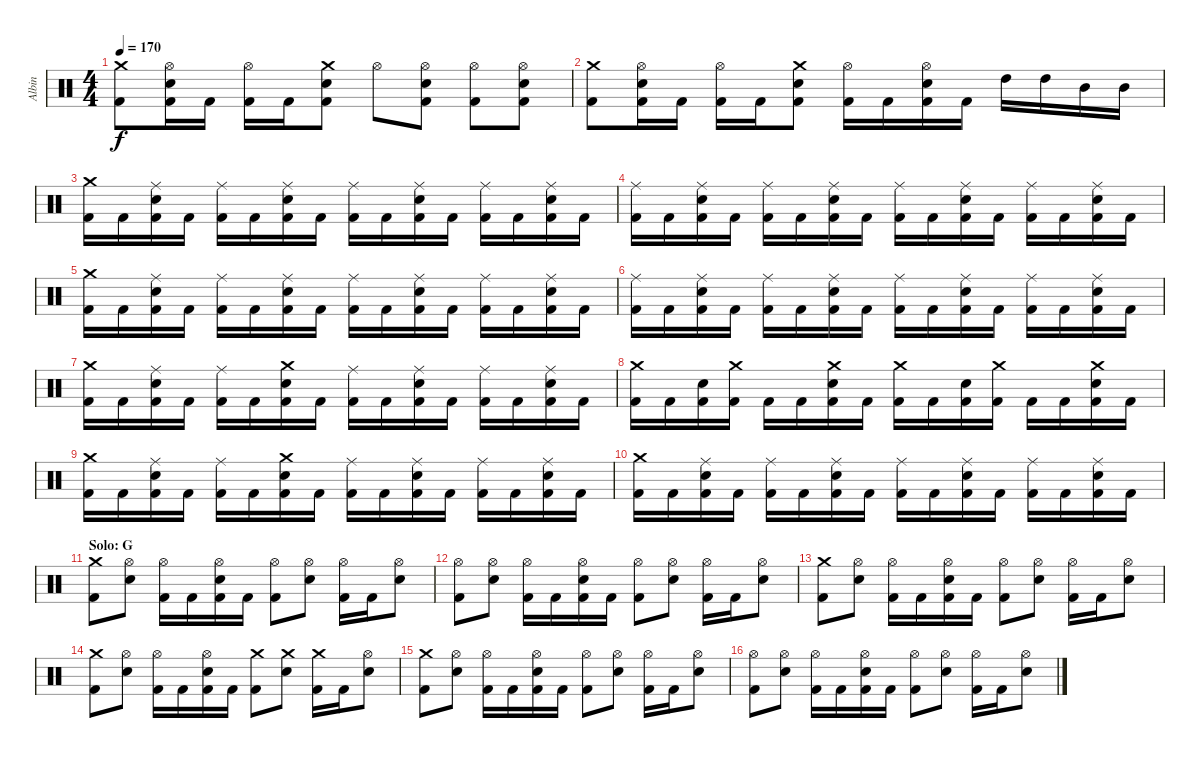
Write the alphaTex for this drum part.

\track ("Albin" "Albin") {instrument percussion}
\staff {score}
\articulation defaults
\ts (4 4)
\tempo 170
\clef neutral
\ks c
("Crash medium (hit)" "Kick (hit) 2").8{dy f} ("Hi-Hat (open)" "Electric Snare (hit)" "Kick (hit) 2").16 "Kick (hit) 2".16 ("Hi-Hat (open)" "Kick (hit) 2").16 "Kick (hit) 2".16 ("Crash medium (hit)" "Electric Snare (hit)" "Kick (hit) 2").8 "Hi-Hat (open)".8 ("Hi-Hat (open)" "Electric Snare (hit)" "Kick (hit) 2").8 ("Hi-Hat (open)" "Kick (hit) 2").8 ("Hi-Hat (open)" "Electric Snare (hit)" "Kick (hit) 2").8 |
("Crash medium (hit)" "Kick (hit) 2").8 ("Hi-Hat (open)" "Electric Snare (hit)" "Kick (hit) 2").16 "Kick (hit) 2".16 ("Hi-Hat (open)" "Kick (hit) 2").16 "Kick (hit) 2".16 ("Crash medium (hit)" "Electric Snare (hit)" "Kick (hit) 2").8 ("Hi-Hat (open)" "Kick (hit) 2").16 "Kick (hit) 2".16 ("Hi-Hat (open)" "Electric Snare (hit)" "Kick (hit) 2").16 "Kick (hit) 2".16 "High Tom (hit)".16 "High Tom (hit)".16 "Mid Tom (hit)".16 "Mid Tom (hit)".16 |
("Crash medium (hit)" "Kick (hit) 2").16 "Kick (hit) 2".16 ("Ride (middle)" "Electric Snare (hit)" "Kick (hit) 2").16 "Kick (hit) 2".16 ("Ride (middle)" "Kick (hit) 2").16 "Kick (hit) 2".16 ("Ride (middle)" "Electric Snare (hit)" "Kick (hit) 2").16 "Kick (hit) 2".16 ("Ride (middle)" "Kick (hit) 2").16 "Kick (hit) 2".16 ("Ride (middle)" "Electric Snare (hit)" "Kick (hit) 2").16 "Kick (hit) 2".16 ("Ride (middle)" "Kick (hit) 2").16 "Kick (hit) 2".16 ("Ride (middle)" "Electric Snare (hit)" "Kick (hit) 2").16 "Kick (hit) 2".16 |
("Ride (middle)" "Kick (hit) 2").16 "Kick (hit) 2".16 ("Ride (middle)" "Electric Snare (hit)" "Kick (hit) 2").16 "Kick (hit) 2".16 ("Ride (middle)" "Kick (hit) 2").16 "Kick (hit) 2".16 ("Ride (middle)" "Electric Snare (hit)" "Kick (hit) 2").16 "Kick (hit) 2".16 ("Ride (middle)" "Kick (hit) 2").16 "Kick (hit) 2".16 ("Ride (middle)" "Electric Snare (hit)" "Kick (hit) 2").16 "Kick (hit) 2".16 ("Ride (middle)" "Kick (hit) 2").16 "Kick (hit) 2".16 ("Ride (middle)" "Electric Snare (hit)" "Kick (hit) 2").16 "Kick (hit) 2".16 |
("Crash medium (hit)" "Kick (hit) 2").16 "Kick (hit) 2".16 ("Ride (middle)" "Electric Snare (hit)" "Kick (hit) 2").16 "Kick (hit) 2".16 ("Ride (middle)" "Kick (hit) 2").16 "Kick (hit) 2".16 ("Ride (middle)" "Electric Snare (hit)" "Kick (hit) 2").16 "Kick (hit) 2".16 ("Ride (middle)" "Kick (hit) 2").16 "Kick (hit) 2".16 ("Ride (middle)" "Electric Snare (hit)" "Kick (hit) 2").16 "Kick (hit) 2".16 ("Ride (middle)" "Kick (hit) 2").16 "Kick (hit) 2".16 ("Ride (middle)" "Electric Snare (hit)" "Kick (hit) 2").16 "Kick (hit) 2".16 |
("Ride (middle)" "Kick (hit) 2").16 "Kick (hit) 2".16 ("Ride (middle)" "Electric Snare (hit)" "Kick (hit) 2").16 "Kick (hit) 2".16 ("Ride (middle)" "Kick (hit) 2").16 "Kick (hit) 2".16 ("Ride (middle)" "Electric Snare (hit)" "Kick (hit) 2").16 "Kick (hit) 2".16 ("Ride (middle)" "Kick (hit) 2").16 "Kick (hit) 2".16 ("Ride (middle)" "Electric Snare (hit)" "Kick (hit) 2").16 "Kick (hit) 2".16 ("Ride (middle)" "Kick (hit) 2").16 "Kick (hit) 2".16 ("Ride (middle)" "Electric Snare (hit)" "Kick (hit) 2").16 "Kick (hit) 2".16 |
("Crash medium (hit)" "Kick (hit) 2").16 "Kick (hit) 2".16 ("Ride (middle)" "Electric Snare (hit)" "Kick (hit) 2").16 "Kick (hit) 2".16 ("Ride (middle)" "Kick (hit) 2").16 "Kick (hit) 2".16 ("Crash medium (hit)" "Electric Snare (hit)" "Kick (hit) 2").16 "Kick (hit) 2".16 ("Ride (middle)" "Kick (hit) 2").16 "Kick (hit) 2".16 ("Ride (middle)" "Electric Snare (hit)" "Kick (hit) 2").16 "Kick (hit) 2".16 ("Ride (middle)" "Kick (hit) 2").16 "Kick (hit) 2".16 ("Ride (middle)" "Electric Snare (hit)" "Kick (hit) 2").16 "Kick (hit) 2".16 |
("Crash medium (hit)" "Kick (hit) 2").16 "Kick (hit) 2".16 ("Electric Snare (hit)" "Kick (hit) 2").16 ("Crash medium (hit)" "Kick (hit) 2").16 "Kick (hit) 2".16 "Kick (hit) 2".16 ("Crash medium (hit)" "Electric Snare (hit)" "Kick (hit) 2").16 "Kick (hit) 2".16 ("Crash medium (hit)" "Kick (hit) 2").16 "Kick (hit) 2".16 ("Electric Snare (hit)" "Kick (hit) 2").16 ("Crash medium (hit)" "Kick (hit) 2").16 "Kick (hit) 2".16 "Kick (hit) 2".16 ("Crash medium (hit)" "Electric Snare (hit)" "Kick (hit) 2").16 "Kick (hit) 2".16 |
("Crash medium (hit)" "Kick (hit) 2").16 "Kick (hit) 2".16 ("Ride (middle)" "Electric Snare (hit)" "Kick (hit) 2").16 "Kick (hit) 2".16 ("Ride (middle)" "Kick (hit) 2").16 "Kick (hit) 2".16 ("Crash medium (hit)" "Electric Snare (hit)" "Kick (hit) 2").16 "Kick (hit) 2".16 ("Ride (middle)" "Kick (hit) 2").16 "Kick (hit) 2".16 ("Ride (middle)" "Electric Snare (hit)" "Kick (hit) 2").16 "Kick (hit) 2".16 ("Ride (middle)" "Kick (hit) 2").16 "Kick (hit) 2".16 ("Ride (middle)" "Electric Snare (hit)" "Kick (hit) 2").16 "Kick (hit) 2".16 |
("Crash medium (hit)" "Kick (hit) 2").16 "Kick (hit) 2".16 ("Ride (middle)" "Electric Snare (hit)" "Kick (hit) 2").16 "Kick (hit) 2".16 ("Ride (middle)" "Kick (hit) 2").16 "Kick (hit) 2".16 ("Ride (middle)" "Electric Snare (hit)" "Kick (hit) 2").16 "Kick (hit) 2".16 ("Ride (middle)" "Kick (hit) 2").16 "Kick (hit) 2".16 ("Ride (middle)" "Electric Snare (hit)" "Kick (hit) 2").16 "Kick (hit) 2".16 ("Ride (middle)" "Kick (hit) 2").16 "Kick (hit) 2".16 ("Ride (middle)" "Electric Snare (hit)" "Kick (hit) 2").16 "Kick (hit) 2".16 |
\section ("" "Solo: G")
("Crash medium (hit)" "Kick (hit) 2").8 ("Hi-Hat (open)" "Electric Snare (hit)").8 ("Hi-Hat (open)" "Kick (hit) 2").16 "Kick (hit) 2".16 ("Hi-Hat (open)" "Electric Snare (hit)" "Kick (hit) 2").16 "Kick (hit) 2".16 ("Hi-Hat (open)" "Kick (hit) 2").8 ("Hi-Hat (open)" "Electric Snare (hit)").8 ("Hi-Hat (open)" "Kick (hit) 2").16 "Kick (hit) 2".16 ("Hi-Hat (open)" "Electric Snare (hit)").8 |
("Hi-Hat (open)" "Kick (hit) 2").8 ("Hi-Hat (open)" "Electric Snare (hit)").8 ("Hi-Hat (open)" "Kick (hit) 2").16 "Kick (hit) 2".16 ("Hi-Hat (open)" "Electric Snare (hit)" "Kick (hit) 2").16 "Kick (hit) 2".16 ("Hi-Hat (open)" "Kick (hit) 2").8 ("Hi-Hat (open)" "Electric Snare (hit)").8 ("Hi-Hat (open)" "Kick (hit) 2").16 "Kick (hit) 2".16 ("Hi-Hat (open)" "Electric Snare (hit)").8 |
("Crash medium (hit)" "Kick (hit) 2").8 ("Hi-Hat (open)" "Electric Snare (hit)").8 ("Hi-Hat (open)" "Kick (hit) 2").16 "Kick (hit) 2".16 ("Hi-Hat (open)" "Electric Snare (hit)" "Kick (hit) 2").16 "Kick (hit) 2".16 ("Hi-Hat (open)" "Kick (hit) 2").8 ("Hi-Hat (open)" "Electric Snare (hit)").8 ("Hi-Hat (open)" "Kick (hit) 2").16 "Kick (hit) 2".16 ("Hi-Hat (open)" "Electric Snare (hit)").8 |
("Crash medium (hit)" "Kick (hit) 2").8 ("Hi-Hat (open)" "Electric Snare (hit)").8 ("Hi-Hat (open)" "Kick (hit) 2").16 "Kick (hit) 2".16 ("Hi-Hat (open)" "Electric Snare (hit)" "Kick (hit) 2").16 "Kick (hit) 2".16 ("Crash medium (hit)" "Kick (hit) 2").8 ("Crash medium (hit)" "Electric Snare (hit)").8 ("Crash medium (hit)" "Kick (hit) 2").16 "Kick (hit) 2".16 ("Hi-Hat (open)" "Electric Snare (hit)").8 |
("Crash medium (hit)" "Kick (hit) 2").8 ("Hi-Hat (open)" "Electric Snare (hit)").8 ("Hi-Hat (open)" "Kick (hit) 2").16 "Kick (hit) 2".16 ("Hi-Hat (open)" "Electric Snare (hit)" "Kick (hit) 2").16 "Kick (hit) 2".16 ("Hi-Hat (open)" "Kick (hit) 2").8 ("Hi-Hat (open)" "Electric Snare (hit)").8 ("Hi-Hat (open)" "Kick (hit) 2").16 "Kick (hit) 2".16 ("Hi-Hat (open)" "Electric Snare (hit)").8 |
("Hi-Hat (open)" "Kick (hit) 2").8 ("Hi-Hat (open)" "Electric Snare (hit)").8 ("Hi-Hat (open)" "Kick (hit) 2").16 "Kick (hit) 2".16 ("Hi-Hat (open)" "Electric Snare (hit)" "Kick (hit) 2").16 "Kick (hit) 2".16 ("Hi-Hat (open)" "Kick (hit) 2").8 ("Hi-Hat (open)" "Electric Snare (hit)").8 ("Hi-Hat (open)" "Kick (hit) 2").16 "Kick (hit) 2".16 ("Hi-Hat (open)" "Electric Snare (hit)").8
